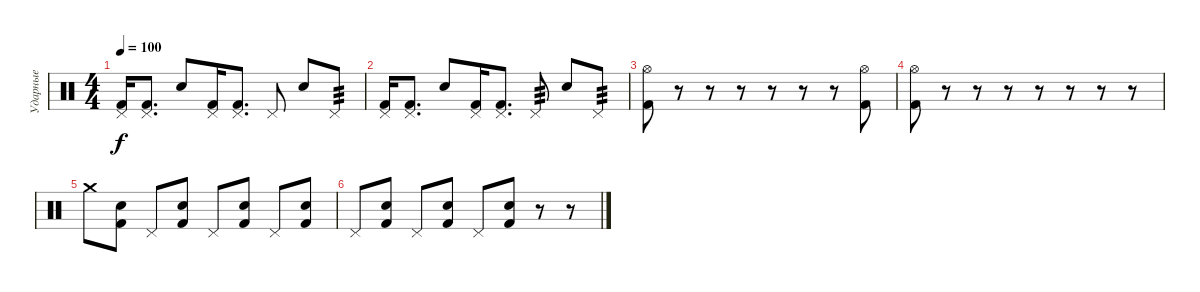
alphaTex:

\track ("Ударные" "Ударные") {instrument percussion}
\staff {score}
\articulation defaults
\ts (4 4)
\tempo 100
\clef neutral
\ks c
("Kick (hit) 2" "Pedal Hi-Hat (hit)").16{dy f} ("Kick (hit) 2" "Pedal Hi-Hat (hit)").8{d} "Electric Snare (hit)".8 ("Kick (hit) 2" "Pedal Hi-Hat (hit)").16 ("Kick (hit) 2" "Pedal Hi-Hat (hit)").8{d} "Pedal Hi-Hat (hit)".8 "Electric Snare (hit)".8 "Pedal Hi-Hat (hit)".8{tp 3} |
("Kick (hit) 2" "Pedal Hi-Hat (hit)").16 ("Kick (hit) 2" "Pedal Hi-Hat (hit)").8{d} "Electric Snare (hit)".8 ("Kick (hit) 2" "Pedal Hi-Hat (hit)").16 ("Kick (hit) 2" "Pedal Hi-Hat (hit)").8{d} "Pedal Hi-Hat (hit)".8{tp 3} "Electric Snare (hit)".8 "Pedal Hi-Hat (hit)".8{tp 3} |
("Kick (hit) 2" "Hi-Hat (open)").8 r.8 r.8 r.8 r.8 r.8 r.8 ("Kick (hit) 2" "Hi-Hat (open)").8 |
("Kick (hit) 2" "Hi-Hat (open)").8 r.8 r.8 r.8 r.8 r.8 r.8 r.8 |
"Crash medium (hit)".8 ("Electric Snare (hit)" "Kick (hit) 2").8 "Pedal Hi-Hat (hit)".8 ("Electric Snare (hit)" "Kick (hit) 2").8 "Pedal Hi-Hat (hit)".8 ("Electric Snare (hit)" "Kick (hit) 2").8 "Pedal Hi-Hat (hit)".8 ("Electric Snare (hit)" "Kick (hit) 2").8 |
"Pedal Hi-Hat (hit)".8 ("Electric Snare (hit)" "Kick (hit) 2").8 "Pedal Hi-Hat (hit)".8 ("Electric Snare (hit)" "Kick (hit) 2").8 "Pedal Hi-Hat (hit)".8 ("Electric Snare (hit)" "Kick (hit) 2").8 r.8 r.8
